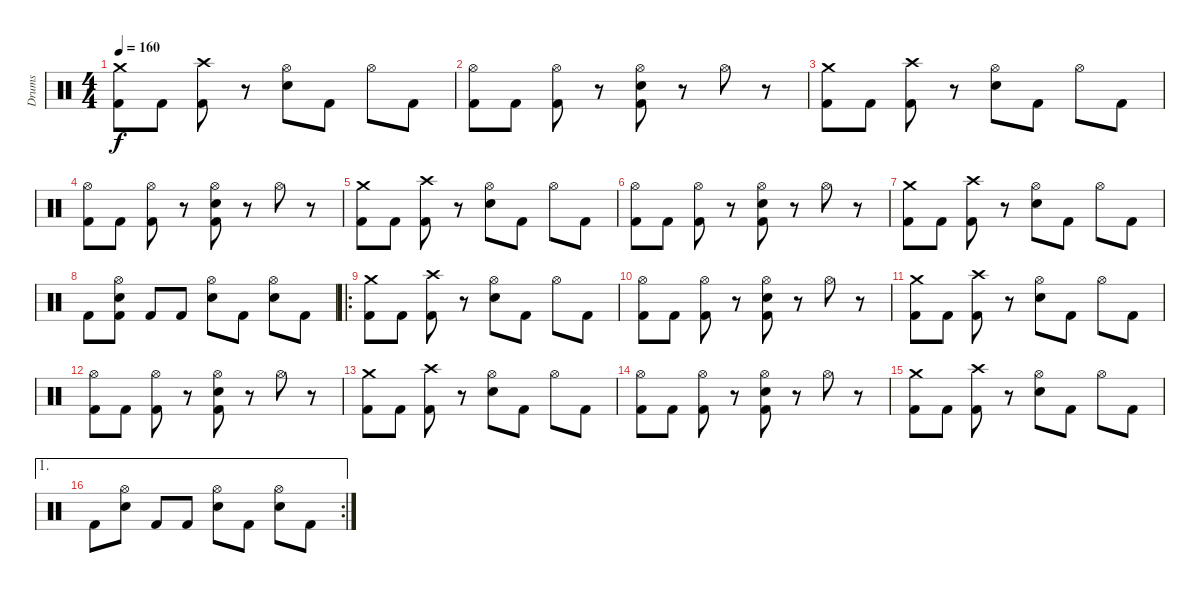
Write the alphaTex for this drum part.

\track ("Drums" "Drums") {instrument percussion}
\staff {score}
\articulation defaults
\ts (4 4)
\tempo 160
\clef neutral
\ks c
("Crash medium (hit)" "Kick (hit) 2").8{dy f} "Kick (hit) 2".8 ("Crash high (hit)" "Kick (hit) 2").8 r.8 ("Snare (hit) 2" "Hi-Hat (open)").8 "Kick (hit) 2".8 "Hi-Hat (open)".8 "Kick (hit) 2".8 |
("Hi-Hat (open)" "Kick (hit) 2").8 "Kick (hit) 2".8 ("Hi-Hat (open)" "Kick (hit) 2").8 r.8 ("Snare (hit) 2" "Hi-Hat (open)" "Kick (hit) 2").8 r.8 "Hi-Hat (open)".8 r.8 |
("Crash medium (hit)" "Kick (hit) 2").8 "Kick (hit) 2".8 ("Crash high (hit)" "Kick (hit) 2").8 r.8 ("Snare (hit) 2" "Hi-Hat (open)").8 "Kick (hit) 2".8 "Hi-Hat (open)".8 "Kick (hit) 2".8 |
("Hi-Hat (open)" "Kick (hit) 2").8 "Kick (hit) 2".8 ("Hi-Hat (open)" "Kick (hit) 2").8 r.8 ("Snare (hit) 2" "Hi-Hat (open)" "Kick (hit) 2").8 r.8 "Hi-Hat (open)".8 r.8 |
("Crash medium (hit)" "Kick (hit) 2").8 "Kick (hit) 2".8 ("Crash high (hit)" "Kick (hit) 2").8 r.8 ("Snare (hit) 2" "Hi-Hat (open)").8 "Kick (hit) 2".8 "Hi-Hat (open)".8 "Kick (hit) 2".8 |
("Hi-Hat (open)" "Kick (hit) 2").8 "Kick (hit) 2".8 ("Hi-Hat (open)" "Kick (hit) 2").8 r.8 ("Snare (hit) 2" "Hi-Hat (open)" "Kick (hit) 2").8 r.8 "Hi-Hat (open)".8 r.8 |
("Crash medium (hit)" "Kick (hit) 2").8 "Kick (hit) 2".8 ("Crash high (hit)" "Kick (hit) 2").8 r.8 ("Snare (hit) 2" "Hi-Hat (open)").8 "Kick (hit) 2".8 "Hi-Hat (open)".8 "Kick (hit) 2".8 |
"Kick (hit) 2".8 ("Snare (hit) 2" "Hi-Hat (open)" "Kick (hit) 2").8 "Kick (hit) 2".8 "Kick (hit) 2".8 ("Snare (hit) 2" "Hi-Hat (open)").8 "Kick (hit) 2".8 ("Snare (hit) 2" "Hi-Hat (open)").8 "Kick (hit) 2".8 |
\ro
("Crash medium (hit)" "Kick (hit) 2").8 "Kick (hit) 2".8 ("Crash high (hit)" "Kick (hit) 2").8 r.8 ("Snare (hit) 2" "Hi-Hat (open)").8 "Kick (hit) 2".8 "Hi-Hat (open)".8 "Kick (hit) 2".8 |
("Hi-Hat (open)" "Kick (hit) 2").8 "Kick (hit) 2".8 ("Hi-Hat (open)" "Kick (hit) 2").8 r.8 ("Snare (hit) 2" "Hi-Hat (open)" "Kick (hit) 2").8 r.8 "Hi-Hat (open)".8 r.8 |
("Crash medium (hit)" "Kick (hit) 2").8 "Kick (hit) 2".8 ("Crash high (hit)" "Kick (hit) 2").8 r.8 ("Snare (hit) 2" "Hi-Hat (open)").8 "Kick (hit) 2".8 "Hi-Hat (open)".8 "Kick (hit) 2".8 |
("Hi-Hat (open)" "Kick (hit) 2").8 "Kick (hit) 2".8 ("Hi-Hat (open)" "Kick (hit) 2").8 r.8 ("Snare (hit) 2" "Hi-Hat (open)" "Kick (hit) 2").8 r.8 "Hi-Hat (open)".8 r.8 |
("Crash medium (hit)" "Kick (hit) 2").8 "Kick (hit) 2".8 ("Crash high (hit)" "Kick (hit) 2").8 r.8 ("Snare (hit) 2" "Hi-Hat (open)").8 "Kick (hit) 2".8 "Hi-Hat (open)".8 "Kick (hit) 2".8 |
("Hi-Hat (open)" "Kick (hit) 2").8 "Kick (hit) 2".8 ("Hi-Hat (open)" "Kick (hit) 2").8 r.8 ("Snare (hit) 2" "Hi-Hat (open)" "Kick (hit) 2").8 r.8 "Hi-Hat (open)".8 r.8 |
("Crash medium (hit)" "Kick (hit) 2").8 "Kick (hit) 2".8 ("Crash high (hit)" "Kick (hit) 2").8 r.8 ("Snare (hit) 2" "Hi-Hat (open)").8 "Kick (hit) 2".8 "Hi-Hat (open)".8 "Kick (hit) 2".8 |
\ae 1
\rc 2 "Kick (hit) 2".8
("Snare (hit) 2" "Hi-Hat (open)").8 "Kick (hit) 2".8 "Kick (hit) 2".8 ("Snare (hit) 2" "Hi-Hat (open)").8 "Kick (hit) 2".8 ("Snare (hit) 2" "Hi-Hat (open)").8 "Kick (hit) 2".8
